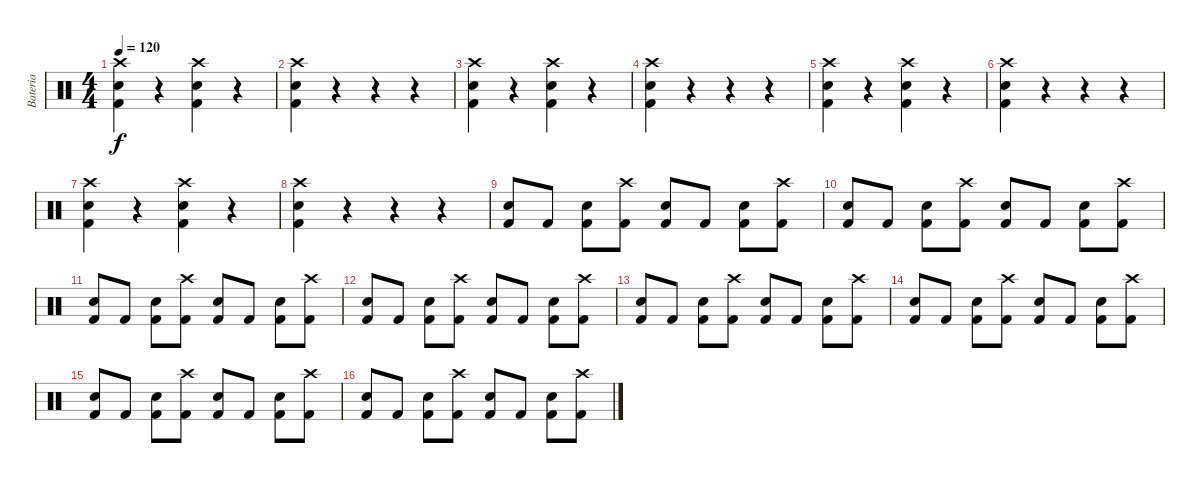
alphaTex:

\track ("Bateria" "Bateria") {instrument percussion}
\staff {score}
\articulation defaults
\ts (4 4)
\tempo 120
\clef neutral
\ks c
("Kick (hit) 2" "Electric Snare (hit)" "Crash high (hit)").4{dy f} r.4 ("Kick (hit) 2" "Crash high (hit)" "Electric Snare (hit)").4 r.4 |
("Kick (hit) 2" "Electric Snare (hit)" "Crash high (hit)").4 r.4 r.4 r.4 |
("Kick (hit) 2" "Electric Snare (hit)" "Crash high (hit)").4 r.4 ("Kick (hit) 2" "Crash high (hit)" "Electric Snare (hit)").4 r.4 |
("Kick (hit) 2" "Electric Snare (hit)" "Crash high (hit)").4 r.4 r.4 r.4 |
("Kick (hit) 2" "Electric Snare (hit)" "Crash high (hit)").4 r.4 ("Kick (hit) 2" "Crash high (hit)" "Electric Snare (hit)").4 r.4 |
("Kick (hit) 2" "Electric Snare (hit)" "Crash high (hit)").4 r.4 r.4 r.4 |
("Kick (hit) 2" "Electric Snare (hit)" "Crash high (hit)").4 r.4 ("Kick (hit) 2" "Crash high (hit)" "Electric Snare (hit)").4 r.4 |
("Kick (hit) 2" "Electric Snare (hit)" "Crash high (hit)").4 r.4 r.4 r.4 |
("Kick (hit) 2" "Electric Snare (hit)").8 "Kick (hit) 2".8 ("Kick (hit) 2" "Electric Snare (hit)").8 ("Kick (hit) 2" "Crash high (hit)").8 ("Kick (hit) 2" "Electric Snare (hit)").8 "Kick (hit) 2".8 ("Kick (hit) 2" "Electric Snare (hit)").8 ("Kick (hit) 2" "Crash high (hit)").8 |
("Kick (hit) 2" "Electric Snare (hit)").8 "Kick (hit) 2".8 ("Kick (hit) 2" "Electric Snare (hit)").8 ("Kick (hit) 2" "Crash high (hit)").8 ("Kick (hit) 2" "Electric Snare (hit)").8 "Kick (hit) 2".8 ("Kick (hit) 2" "Electric Snare (hit)").8 ("Kick (hit) 2" "Crash high (hit)").8 |
("Kick (hit) 2" "Electric Snare (hit)").8 "Kick (hit) 2".8 ("Kick (hit) 2" "Electric Snare (hit)").8 ("Kick (hit) 2" "Crash high (hit)").8 ("Kick (hit) 2" "Electric Snare (hit)").8 "Kick (hit) 2".8 ("Kick (hit) 2" "Electric Snare (hit)").8 ("Kick (hit) 2" "Crash high (hit)").8 |
("Kick (hit) 2" "Electric Snare (hit)").8 "Kick (hit) 2".8 ("Kick (hit) 2" "Electric Snare (hit)").8 ("Kick (hit) 2" "Crash high (hit)").8 ("Kick (hit) 2" "Electric Snare (hit)").8 "Kick (hit) 2".8 ("Kick (hit) 2" "Electric Snare (hit)").8 ("Kick (hit) 2" "Crash high (hit)").8 |
("Kick (hit) 2" "Electric Snare (hit)").8 "Kick (hit) 2".8 ("Kick (hit) 2" "Electric Snare (hit)").8 ("Kick (hit) 2" "Crash high (hit)").8 ("Kick (hit) 2" "Electric Snare (hit)").8 "Kick (hit) 2".8 ("Kick (hit) 2" "Electric Snare (hit)").8 ("Kick (hit) 2" "Crash high (hit)").8 |
("Kick (hit) 2" "Electric Snare (hit)").8 "Kick (hit) 2".8 ("Kick (hit) 2" "Electric Snare (hit)").8 ("Kick (hit) 2" "Crash high (hit)").8 ("Kick (hit) 2" "Electric Snare (hit)").8 "Kick (hit) 2".8 ("Kick (hit) 2" "Electric Snare (hit)").8 ("Kick (hit) 2" "Crash high (hit)").8 |
("Kick (hit) 2" "Electric Snare (hit)").8 "Kick (hit) 2".8 ("Kick (hit) 2" "Electric Snare (hit)").8 ("Kick (hit) 2" "Crash high (hit)").8 ("Kick (hit) 2" "Electric Snare (hit)").8 "Kick (hit) 2".8 ("Kick (hit) 2" "Electric Snare (hit)").8 ("Kick (hit) 2" "Crash high (hit)").8 |
("Kick (hit) 2" "Electric Snare (hit)").8 "Kick (hit) 2".8 ("Kick (hit) 2" "Electric Snare (hit)").8 ("Kick (hit) 2" "Crash high (hit)").8 ("Kick (hit) 2" "Electric Snare (hit)").8 "Kick (hit) 2".8 ("Kick (hit) 2" "Electric Snare (hit)").8 ("Kick (hit) 2" "Crash high (hit)").8
